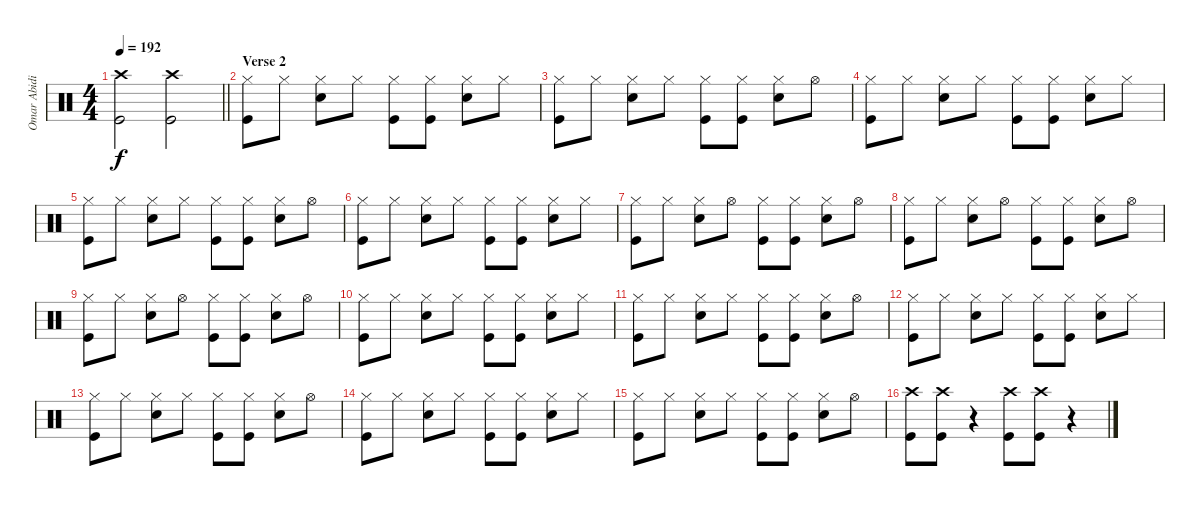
\track ("Omar Abidi" "Omar Abidi") {instrument percussion}
\staff {score}
\articulation defaults
\ts (4 4)
\tempo 192
\clef neutral
\barLineRight lightlight
\ks c
("Crash high (hit)" "Kick (hit)").2{dy f} ("Crash high (hit)" "Kick (hit)").2 |
\section ("" "Verse 2")
("Hi-Hat (closed)" "Kick (hit)").8 "Hi-Hat (closed)".8 ("Hi-Hat (closed)" "Electric Snare (hit)").8 "Hi-Hat (closed)".8 ("Hi-Hat (closed)" "Kick (hit)").8 ("Hi-Hat (closed)" "Kick (hit)").8 ("Hi-Hat (closed)" "Electric Snare (hit)").8 "Hi-Hat (closed)".8 |
("Hi-Hat (closed)" "Kick (hit)").8 "Hi-Hat (closed)".8 ("Hi-Hat (closed)" "Electric Snare (hit)").8 "Hi-Hat (closed)".8 ("Hi-Hat (closed)" "Kick (hit)").8 ("Hi-Hat (closed)" "Kick (hit)").8 ("Hi-Hat (closed)" "Electric Snare (hit)").8 "Hi-Hat (open)".8 |
("Hi-Hat (closed)" "Kick (hit)").8 "Hi-Hat (closed)".8 ("Hi-Hat (closed)" "Electric Snare (hit)").8 "Hi-Hat (closed)".8 ("Hi-Hat (closed)" "Kick (hit)").8 ("Hi-Hat (closed)" "Kick (hit)").8 ("Hi-Hat (closed)" "Electric Snare (hit)").8 "Hi-Hat (closed)".8 |
("Hi-Hat (closed)" "Kick (hit)").8 "Hi-Hat (closed)".8 ("Hi-Hat (closed)" "Electric Snare (hit)").8 "Hi-Hat (closed)".8 ("Hi-Hat (closed)" "Kick (hit)").8 ("Hi-Hat (closed)" "Kick (hit)").8 ("Hi-Hat (closed)" "Electric Snare (hit)").8 "Hi-Hat (open)".8 |
("Hi-Hat (closed)" "Kick (hit)").8 "Hi-Hat (closed)".8 ("Hi-Hat (closed)" "Electric Snare (hit)").8 "Hi-Hat (closed)".8 ("Hi-Hat (closed)" "Kick (hit)").8 ("Hi-Hat (closed)" "Kick (hit)").8 ("Hi-Hat (closed)" "Electric Snare (hit)").8 "Hi-Hat (closed)".8 |
("Hi-Hat (closed)" "Kick (hit)").8 "Hi-Hat (closed)".8 ("Hi-Hat (closed)" "Electric Snare (hit)").8 "Hi-Hat (open)".8 ("Hi-Hat (closed)" "Kick (hit)").8 ("Hi-Hat (closed)" "Kick (hit)").8 ("Hi-Hat (closed)" "Electric Snare (hit)").8 "Hi-Hat (open)".8 |
("Hi-Hat (closed)" "Kick (hit)").8 "Hi-Hat (closed)".8 ("Hi-Hat (closed)" "Electric Snare (hit)").8 "Hi-Hat (open)".8 ("Hi-Hat (closed)" "Kick (hit)").8 ("Hi-Hat (closed)" "Kick (hit)").8 ("Hi-Hat (closed)" "Electric Snare (hit)").8 "Hi-Hat (open)".8 |
("Hi-Hat (closed)" "Kick (hit)").8 "Hi-Hat (closed)".8 ("Hi-Hat (closed)" "Electric Snare (hit)").8 "Hi-Hat (open)".8 ("Hi-Hat (closed)" "Kick (hit)").8 ("Hi-Hat (closed)" "Kick (hit)").8 ("Hi-Hat (closed)" "Electric Snare (hit)").8 "Hi-Hat (open)".8 |
("Hi-Hat (closed)" "Kick (hit)").8 "Hi-Hat (closed)".8 ("Hi-Hat (closed)" "Electric Snare (hit)").8 "Hi-Hat (closed)".8 ("Hi-Hat (closed)" "Kick (hit)").8 ("Hi-Hat (closed)" "Kick (hit)").8 ("Hi-Hat (closed)" "Electric Snare (hit)").8 "Hi-Hat (closed)".8 |
("Hi-Hat (closed)" "Kick (hit)").8 "Hi-Hat (closed)".8 ("Hi-Hat (closed)" "Electric Snare (hit)").8 "Hi-Hat (closed)".8 ("Hi-Hat (closed)" "Kick (hit)").8 ("Hi-Hat (closed)" "Kick (hit)").8 ("Hi-Hat (closed)" "Electric Snare (hit)").8 "Hi-Hat (open)".8 |
("Hi-Hat (closed)" "Kick (hit)").8 "Hi-Hat (closed)".8 ("Hi-Hat (closed)" "Electric Snare (hit)").8 "Hi-Hat (closed)".8 ("Hi-Hat (closed)" "Kick (hit)").8 ("Hi-Hat (closed)" "Kick (hit)").8 ("Hi-Hat (closed)" "Electric Snare (hit)").8 "Hi-Hat (closed)".8 |
("Hi-Hat (closed)" "Kick (hit)").8 "Hi-Hat (closed)".8 ("Hi-Hat (closed)" "Electric Snare (hit)").8 "Hi-Hat (closed)".8 ("Hi-Hat (closed)" "Kick (hit)").8 ("Hi-Hat (closed)" "Kick (hit)").8 ("Hi-Hat (closed)" "Electric Snare (hit)").8 "Hi-Hat (open)".8 |
("Hi-Hat (closed)" "Kick (hit)").8 "Hi-Hat (closed)".8 ("Hi-Hat (closed)" "Electric Snare (hit)").8 "Hi-Hat (closed)".8 ("Hi-Hat (closed)" "Kick (hit)").8 ("Hi-Hat (closed)" "Kick (hit)").8 ("Hi-Hat (closed)" "Electric Snare (hit)").8 "Hi-Hat (closed)".8 |
("Hi-Hat (closed)" "Kick (hit)").8 "Hi-Hat (closed)".8 ("Hi-Hat (closed)" "Electric Snare (hit)").8 "Hi-Hat (closed)".8 ("Hi-Hat (closed)" "Kick (hit)").8 ("Hi-Hat (closed)" "Kick (hit)").8 ("Hi-Hat (closed)" "Electric Snare (hit)").8 "Hi-Hat (open)".8 |
("Crash high (hit)" "Kick (hit)").8 ("Crash high (hit)" "Kick (hit)").8 r.4 ("Crash high (hit)" "Kick (hit)").8 ("Crash high (hit)" "Kick (hit)").8 r.4
